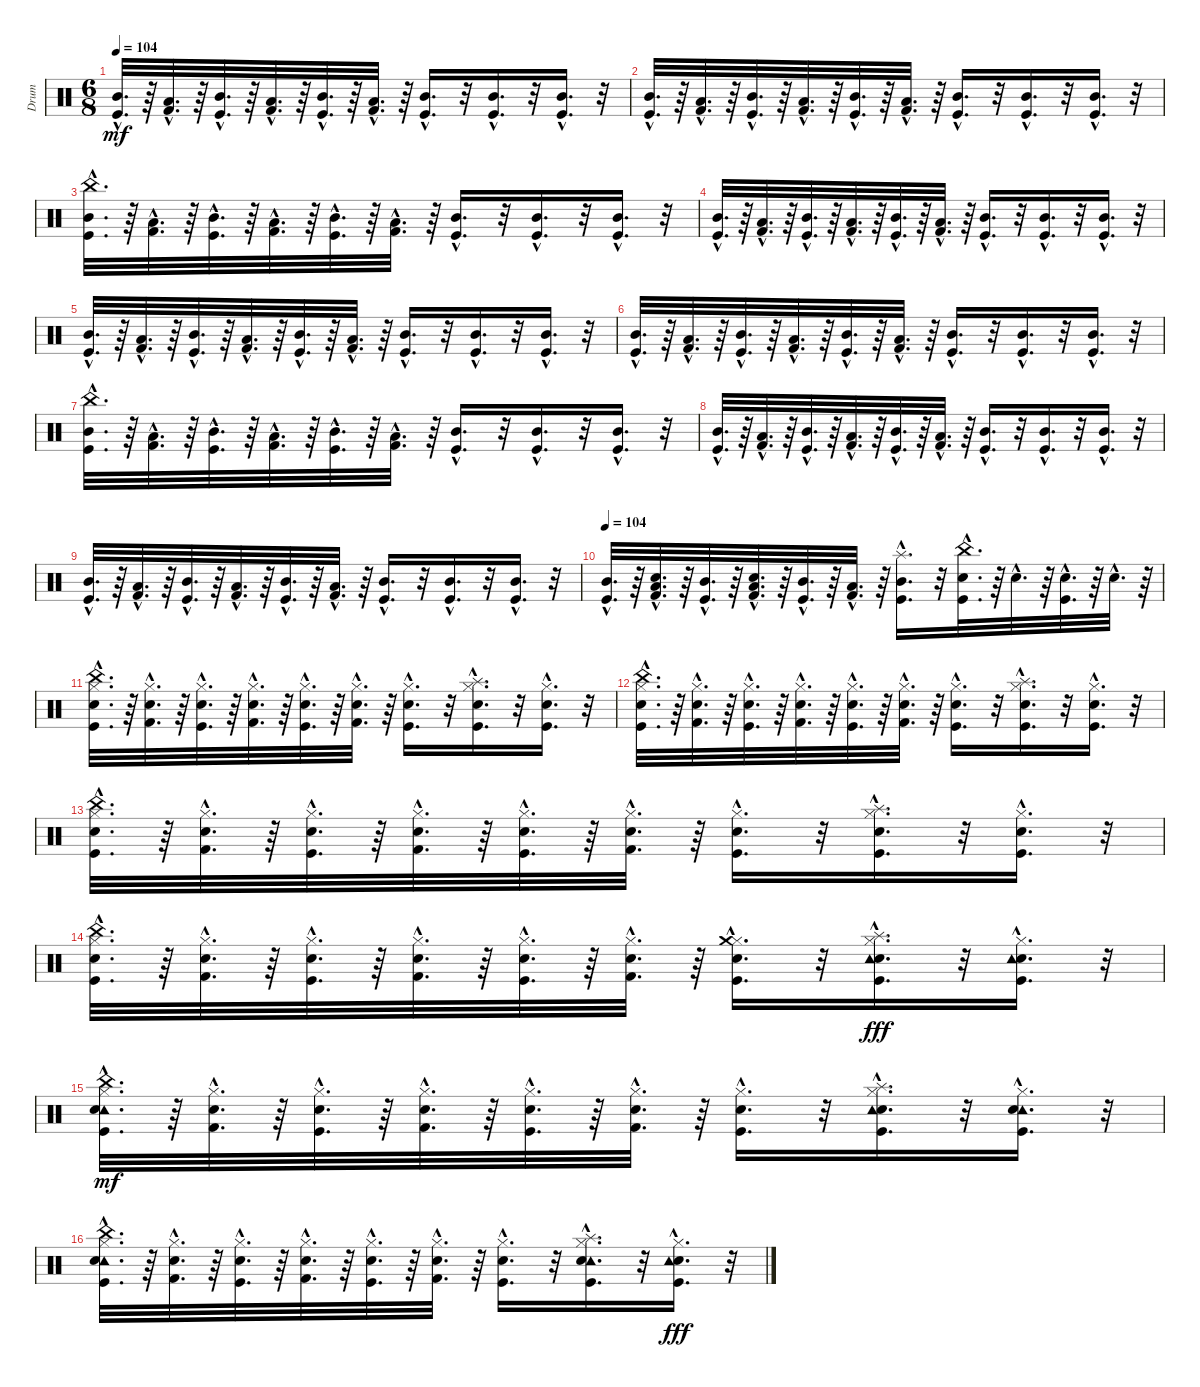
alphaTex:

\track ("Drum" "Drum") {instrument percussion}
\staff {score}
\articulation defaults
\ts (6 8)
\tempo 104
\clef neutral
\ks c
("Kick (hit)"{hac} "Mid Tom (hit)"{hac}).32{d dy mf} r.64 ("Kick (hit) 2"{hac} "Low Tom (hit)"{hac}).32{d} r.64 ("Kick (hit)"{hac} "Mid Tom (hit)"{hac}).32{d} r.64 ("Kick (hit) 2"{hac} "Low Tom (hit)"{hac}).32{d} r.64 ("Kick (hit)"{hac} "Mid Tom (hit)"{hac}).32{d} r.64 ("Kick (hit) 2"{hac} "Low Tom (hit)"{hac}).32{d} r.64 ("Kick (hit)"{hac} "Mid Tom (hit)"{hac}).16{d} r.32 ("Kick (hit)"{hac} "Mid Tom (hit)"{hac}).16{d} r.32 ("Kick (hit)"{hac} "Mid Tom (hit)"{hac}).16{d} r.32 |
("Kick (hit)"{hac} "Mid Tom (hit)"{hac}).32{d} r.64 ("Kick (hit) 2"{hac} "Low Tom (hit)"{hac}).32{d} r.64 ("Kick (hit)"{hac} "Mid Tom (hit)"{hac}).32{d} r.64 ("Kick (hit) 2"{hac} "Low Tom (hit)"{hac}).32{d} r.64 ("Kick (hit)"{hac} "Mid Tom (hit)"{hac}).32{d} r.64 ("Kick (hit) 2"{hac} "Low Tom (hit)"{hac}).32{d} r.64 ("Kick (hit)"{hac} "Mid Tom (hit)"{hac}).16{d} r.32 ("Kick (hit)"{hac} "Mid Tom (hit)"{hac}).16{d} r.32 ("Kick (hit)"{hac} "Mid Tom (hit)"{hac}).16{d} r.32 |
("China (hit)"{hac} "Kick (hit)"{hac} "Mid Tom (hit)"{hac}).32{d} r.64 ("Kick (hit) 2"{hac} "Low Tom (hit)"{hac}).32{d} r.64 ("Kick (hit)"{hac} "Mid Tom (hit)"{hac}).32{d} r.64 ("Kick (hit) 2"{hac} "Low Tom (hit)"{hac}).32{d} r.64 ("Kick (hit)"{hac} "Mid Tom (hit)"{hac}).32{d} r.64 ("Kick (hit) 2"{hac} "Low Tom (hit)"{hac}).32{d} r.64 ("Kick (hit)"{hac} "Mid Tom (hit)"{hac}).16{d} r.32 ("Kick (hit)"{hac} "Mid Tom (hit)"{hac}).16{d} r.32 ("Kick (hit)"{hac} "Mid Tom (hit)"{hac}).16{d} r.32 |
("Mid Tom (hit)"{hac} "Kick (hit)"{hac}).32{d} r.64 ("Low Tom (hit)"{hac} "Kick (hit) 2"{hac}).32{d} r.64 ("Mid Tom (hit)"{hac} "Kick (hit)"{hac}).32{d} r.64 ("Low Tom (hit)"{hac} "Kick (hit) 2"{hac}).32{d} r.64 ("Mid Tom (hit)"{hac} "Kick (hit)"{hac}).32{d} r.64 ("Low Tom (hit)"{hac} "Kick (hit) 2"{hac}).32{d} r.64 ("Mid Tom (hit)"{hac} "Kick (hit)"{hac}).16{d} r.32 ("Mid Tom (hit)"{hac} "Kick (hit)"{hac}).16{d} r.32 ("Mid Tom (hit)"{hac} "Kick (hit)"{hac}).16{d} r.32 |
("Kick (hit)"{hac} "Mid Tom (hit)"{hac}).32{d} r.64 ("Kick (hit) 2"{hac} "Low Tom (hit)"{hac}).32{d} r.64 ("Kick (hit)"{hac} "Mid Tom (hit)"{hac}).32{d} r.64 ("Kick (hit) 2"{hac} "Low Tom (hit)"{hac}).32{d} r.64 ("Kick (hit)"{hac} "Mid Tom (hit)"{hac}).32{d} r.64 ("Kick (hit) 2"{hac} "Low Tom (hit)"{hac}).32{d} r.64 ("Kick (hit)"{hac} "Mid Tom (hit)"{hac}).16{d} r.32 ("Kick (hit)"{hac} "Mid Tom (hit)"{hac}).16{d} r.32 ("Kick (hit)"{hac} "Mid Tom (hit)"{hac}).16{d} r.32 |
("Kick (hit)"{hac} "Mid Tom (hit)"{hac}).32{d} r.64 ("Kick (hit) 2"{hac} "Low Tom (hit)"{hac}).32{d} r.64 ("Kick (hit)"{hac} "Mid Tom (hit)"{hac}).32{d} r.64 ("Kick (hit) 2"{hac} "Low Tom (hit)"{hac}).32{d} r.64 ("Kick (hit)"{hac} "Mid Tom (hit)"{hac}).32{d} r.64 ("Kick (hit) 2"{hac} "Low Tom (hit)"{hac}).32{d} r.64 ("Kick (hit)"{hac} "Mid Tom (hit)"{hac}).16{d} r.32 ("Kick (hit)"{hac} "Mid Tom (hit)"{hac}).16{d} r.32 ("Kick (hit)"{hac} "Mid Tom (hit)"{hac}).16{d} r.32 |
("Kick (hit)"{hac} "China (hit)"{hac} "Mid Tom (hit)"{hac}).32{d} r.64 ("Kick (hit) 2"{hac} "Low Tom (hit)"{hac}).32{d} r.64 ("Kick (hit)"{hac} "Mid Tom (hit)"{hac}).32{d} r.64 ("Kick (hit) 2"{hac} "Low Tom (hit)"{hac}).32{d} r.64 ("Kick (hit)"{hac} "Mid Tom (hit)"{hac}).32{d} r.64 ("Kick (hit) 2"{hac} "Low Tom (hit)"{hac}).32{d} r.64 ("Kick (hit)"{hac} "Mid Tom (hit)"{hac}).16{d} r.32 ("Kick (hit)"{hac} "Mid Tom (hit)"{hac}).16{d} r.32 ("Kick (hit)"{hac} "Mid Tom (hit)"{hac}).16{d} r.32 |
("Mid Tom (hit)"{hac} "Kick (hit)"{hac}).32{d} r.64 ("Low Tom (hit)"{hac} "Kick (hit) 2"{hac}).32{d} r.64 ("Mid Tom (hit)"{hac} "Kick (hit)"{hac}).32{d} r.64 ("Low Tom (hit)"{hac} "Kick (hit) 2"{hac}).32{d} r.64 ("Mid Tom (hit)"{hac} "Kick (hit)"{hac}).32{d} r.64 ("Low Tom (hit)"{hac} "Kick (hit) 2"{hac}).32{d} r.64 ("Mid Tom (hit)"{hac} "Kick (hit)"{hac}).16{d} r.32 ("Mid Tom (hit)"{hac} "Kick (hit)"{hac}).16{d} r.32 ("Mid Tom (hit)"{hac} "Kick (hit)"{hac}).16{d} r.32 |
("Kick (hit)"{hac} "Mid Tom (hit)"{hac}).32{d} r.64 ("Kick (hit) 2"{hac} "Low Tom (hit)"{hac}).32{d} r.64 ("Kick (hit)"{hac} "Mid Tom (hit)"{hac}).32{d} r.64 ("Kick (hit) 2"{hac} "Low Tom (hit)"{hac}).32{d} r.64 ("Kick (hit)"{hac} "Mid Tom (hit)"{hac}).32{d} r.64 ("Kick (hit) 2"{hac} "Low Tom (hit)"{hac}).32{d} r.64 ("Kick (hit)"{hac} "Mid Tom (hit)"{hac}).16{d} r.32 ("Kick (hit)"{hac} "Mid Tom (hit)"{hac}).16{d} r.32 ("Kick (hit)"{hac} "Mid Tom (hit)"{hac}).16{d} r.32 |
\tempo 104
("Kick (hit)"{hac} "Mid Tom (hit)"{hac}).32{d} r.64 ("Kick (hit) 2"{hac} "Low Tom (hit)"{hac} "Snare (hit) 2"{hac}).32{d} r.64 ("Kick (hit)"{hac} "Mid Tom (hit)"{hac}).32{d} r.64 ("Kick (hit) 2"{hac} "Low Tom (hit)"{hac} "Snare (hit) 2"{hac}).32{d} r.64 ("Kick (hit)"{hac} "Mid Tom (hit)"{hac}).32{d} r.64 ("Kick (hit) 2"{hac} "Low Tom (hit)"{hac}).32{d} r.64 ("Kick (hit)"{hac} "Mid Tom (hit)"{hac} "Splash (hit)"{hac}).16{d} r.32 ("Snare (hit) 2"{hac} "Kick (hit)"{hac} "China (hit)"{hac}).32{d} r.64 "Snare (hit) 2"{hac}.32{d} r.64 ("Snare (hit) 2"{hac} "Kick (hit)"{hac}).32{d} r.64 "Snare (hit) 2"{hac}.32{d} r.64 |
("Kick (hit)"{hac} "Snare (hit) 2"{hac} "Hi-Hat (closed)"{hac} "China (hit)"{hac}).32{d} r.64 ("Kick (hit) 2"{hac} "Electric Snare (hit)"{hac} "Hi-Hat (closed)"{hac}).32{d} r.64 ("Kick (hit)"{hac} "Snare (hit) 2"{hac} "Hi-Hat (closed)"{hac}).32{d} r.64 ("Kick (hit) 2"{hac} "Electric Snare (hit)"{hac} "Hi-Hat (closed)"{hac}).32{d} r.64 ("Kick (hit)"{hac} "Snare (hit) 2"{hac} "Hi-Hat (closed)"{hac}).32{d} r.64 ("Kick (hit) 2"{hac} "Electric Snare (hit)"{hac} "Hi-Hat (closed)"{hac}).32{d} r.64 ("Kick (hit)"{hac} "Snare (hit) 2"{hac} "Hi-Hat (closed)"{hac}).16{d} r.32 ("Kick (hit)"{hac} "Snare (hit) 2"{hac} "Hi-Hat (closed)"{hac} "Splash (hit)"{hac}).16{d} r.32 ("Kick (hit)"{hac} "Snare (hit) 2"{hac} "Hi-Hat (closed)"{hac}).16{d} r.32 |
("Snare (hit) 2"{hac} "Kick (hit)"{hac} "Hi-Hat (closed)"{hac} "China (hit)"{hac}).32{d} r.64 ("Electric Snare (hit)"{hac} "Kick (hit) 2"{hac} "Hi-Hat (closed)"{hac}).32{d} r.64 ("Snare (hit) 2"{hac} "Kick (hit)"{hac} "Hi-Hat (closed)"{hac}).32{d} r.64 ("Electric Snare (hit)"{hac} "Kick (hit) 2"{hac} "Hi-Hat (closed)"{hac}).32{d} r.64 ("Snare (hit) 2"{hac} "Kick (hit)"{hac} "Hi-Hat (closed)"{hac}).32{d} r.64 ("Electric Snare (hit)"{hac} "Kick (hit) 2"{hac} "Hi-Hat (closed)"{hac}).32{d} r.64 ("Snare (hit) 2"{hac} "Kick (hit)"{hac} "Hi-Hat (closed)"{hac}).16{d} r.32 ("Snare (hit) 2"{hac} "Splash (hit)"{hac} "Kick (hit)"{hac} "Hi-Hat (closed)"{hac}).16{d} r.32 ("Snare (hit) 2"{hac} "Kick (hit)"{hac} "Hi-Hat (closed)"{hac}).16{d} r.32 |
("China (hit)"{hac} "Hi-Hat (closed)"{hac} "Kick (hit)"{hac} "Snare (hit) 2"{hac}).32{d} r.64 ("Hi-Hat (closed)"{hac} "Kick (hit) 2"{hac} "Electric Snare (hit)"{hac}).32{d} r.64 ("Hi-Hat (closed)"{hac} "Kick (hit)"{hac} "Snare (hit) 2"{hac}).32{d} r.64 ("Hi-Hat (closed)"{hac} "Kick (hit) 2"{hac} "Electric Snare (hit)"{hac}).32{d} r.64 ("Hi-Hat (closed)"{hac} "Kick (hit)"{hac} "Snare (hit) 2"{hac}).32{d} r.64 ("Hi-Hat (closed)"{hac} "Kick (hit) 2"{hac} "Electric Snare (hit)"{hac}).32{d} r.64 ("Hi-Hat (closed)"{hac} "Kick (hit)"{hac} "Snare (hit) 2"{hac}).16{d} r.32 ("Hi-Hat (closed)"{hac} "Kick (hit)"{hac} "Splash (hit)"{hac} "Snare (hit) 2"{hac}).16{d} r.32 ("Hi-Hat (closed)"{hac} "Kick (hit)"{hac} "Snare (hit) 2"{hac}).16{d} r.32 |
("China (hit)"{hac} "Hi-Hat (closed)"{hac} "Kick (hit)"{hac} "Snare (hit) 2"{hac}).32{d} r.64 ("Hi-Hat (closed)"{hac} "Kick (hit) 2"{hac} "Electric Snare (hit)"{hac}).32{d} r.64 ("Hi-Hat (closed)"{hac} "Kick (hit)"{hac} "Snare (hit) 2"{hac}).32{d} r.64 ("Hi-Hat (closed)"{hac} "Kick (hit) 2"{hac} "Electric Snare (hit)"{hac}).32{d} r.64 ("Hi-Hat (closed)"{hac} "Kick (hit)"{hac} "Snare (hit) 2"{hac}).32{d} r.64 ("Hi-Hat (closed)"{hac} "Kick (hit) 2"{hac} "Electric Snare (hit)"{hac}).32{d} r.64 ("Hi-Hat (closed)"{hac} "Kick (hit)"{hac} "Snare (hit) 2"{hac} "Crash medium (hit)"{hac}).16{d} r.32 ("Hi-Hat (closed)"{hac} "Kick (hit)"{hac} "Splash (hit)"{hac} "Snare (hit) 2"{hac} "Tambourine (hit)"{hac}).16{d dy fff} r.32 ("Hi-Hat (closed)"{hac} "Kick (hit)"{hac} "Snare (hit) 2"{hac} "Tambourine (hit)"{hac}).16{d} r.32 |
("Hi-Hat (closed)"{hac} "Kick (hit)"{hac} "Tambourine (hit)"{hac} "Snare (hit) 2"{hac} "China (hit)"{hac}).32{d dy mf} r.64 ("Hi-Hat (closed)"{hac} "Kick (hit) 2"{hac} "Electric Snare (hit)"{hac}).32{d} r.64 ("Snare (hit) 2"{hac} "Kick (hit)"{hac} "Hi-Hat (closed)"{hac}).32{d} r.64 ("Hi-Hat (closed)"{hac} "Electric Snare (hit)"{hac} "Kick (hit) 2"{hac}).32{d} r.64 ("Hi-Hat (closed)"{hac} "Snare (hit) 2"{hac} "Kick (hit)"{hac}).32{d} r.64 ("Kick (hit) 2"{hac} "Electric Snare (hit)"{hac} "Hi-Hat (closed)"{hac}).32{d} r.64 ("Kick (hit)"{hac} "Snare (hit) 2"{hac} "Hi-Hat (closed)"{hac}).16{d} r.32 ("Kick (hit)"{hac} "Snare (hit) 2"{hac} "Hi-Hat (closed)"{hac} "Tambourine (hit)"{hac} "Splash (hit)"{hac}).16{d} r.32 ("Tambourine (hit)"{hac} "Kick (hit)"{hac} "Snare (hit) 2"{hac} "Hi-Hat (closed)"{hac}).16{d} r.32 |
("Tambourine (hit)"{hac} "China (hit)"{hac} "Hi-Hat (closed)"{hac} "Snare (hit) 2"{hac} "Kick (hit)"{hac}).32{d} r.64 ("Hi-Hat (closed)"{hac} "Kick (hit) 2"{hac} "Electric Snare (hit)"{hac}).32{d} r.64 ("Hi-Hat (closed)"{hac} "Kick (hit)"{hac} "Snare (hit) 2"{hac}).32{d} r.64 ("Kick (hit) 2"{hac} "Electric Snare (hit)"{hac} "Hi-Hat (closed)"{hac}).32{d} r.64 ("Kick (hit)"{hac} "Hi-Hat (closed)"{hac} "Snare (hit) 2"{hac}).32{d} r.64 ("Electric Snare (hit)"{hac} "Hi-Hat (closed)"{hac} "Kick (hit) 2"{hac}).32{d} r.64 ("Hi-Hat (closed)"{hac} "Kick (hit)"{hac} "Snare (hit) 2"{hac}).16{d} r.32 ("Tambourine (hit)"{hac} "Snare (hit) 2"{hac} "Kick (hit)"{hac} "Splash (hit)"{hac} "Hi-Hat (closed)"{hac}).16{d} r.32 ("Hi-Hat (closed)"{hac} "Kick (hit)"{hac} "Snare (hit) 2"{hac} "Tambourine (hit)"{hac}).16{d dy fff} r.32
